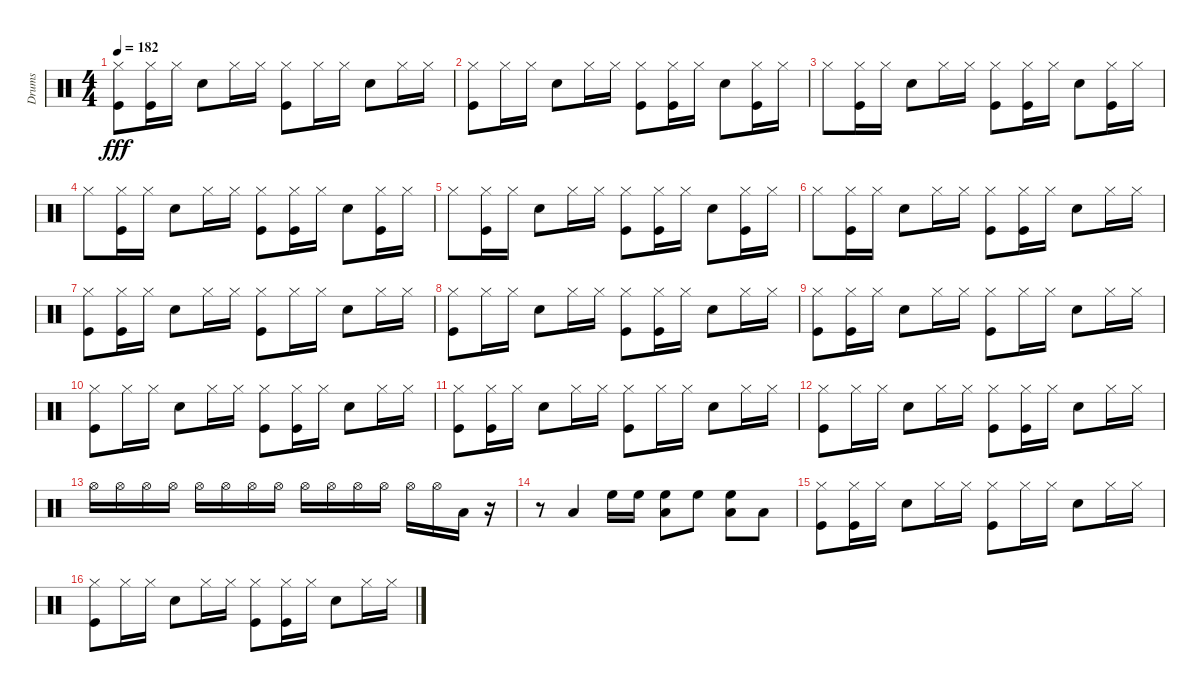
\track ("Drums" "Drums") {instrument percussion}
\staff {score}
\articulation defaults
\ts (4 4)
\tempo 182
\clef neutral
\ks c
("Hi-Hat (closed)" "Kick (hit)").8{dy fff} ("Hi-Hat (closed)" "Kick (hit)").16 "Hi-Hat (closed)".16 "Snare (hit) 2".8 "Hi-Hat (closed)".16 "Hi-Hat (closed)".16 ("Hi-Hat (closed)" "Kick (hit)").8 "Hi-Hat (closed)".16 "Hi-Hat (closed)".16 "Snare (hit) 2".8 "Hi-Hat (closed)".16 "Hi-Hat (closed)".16 |
("Hi-Hat (closed)" "Kick (hit)").8 "Hi-Hat (closed)".16 "Hi-Hat (closed)".16 "Snare (hit) 2".8 "Hi-Hat (closed)".16 "Hi-Hat (closed)".16 ("Hi-Hat (closed)" "Kick (hit)").8 ("Hi-Hat (closed)" "Kick (hit)").16 "Hi-Hat (closed)".16 "Snare (hit) 2".8 ("Hi-Hat (closed)" "Kick (hit)").16 "Hi-Hat (closed)".16 |
"Hi-Hat (closed)".8 ("Hi-Hat (closed)" "Kick (hit)").16 "Hi-Hat (closed)".16 "Snare (hit) 2".8 "Hi-Hat (closed)".16 "Hi-Hat (closed)".16 ("Hi-Hat (closed)" "Kick (hit)").8 ("Hi-Hat (closed)" "Kick (hit)").16 "Hi-Hat (closed)".16 "Snare (hit) 2".8 ("Hi-Hat (closed)" "Kick (hit)").16 "Hi-Hat (closed)".16 |
"Hi-Hat (closed)".8 ("Hi-Hat (closed)" "Kick (hit)").16 "Hi-Hat (closed)".16 "Snare (hit) 2".8 "Hi-Hat (closed)".16 "Hi-Hat (closed)".16 ("Hi-Hat (closed)" "Kick (hit)").8 ("Hi-Hat (closed)" "Kick (hit)").16 "Hi-Hat (closed)".16 "Snare (hit) 2".8 ("Hi-Hat (closed)" "Kick (hit)").16 "Hi-Hat (closed)".16 |
"Hi-Hat (closed)".8 ("Hi-Hat (closed)" "Kick (hit)").16 "Hi-Hat (closed)".16 "Snare (hit) 2".8 "Hi-Hat (closed)".16 "Hi-Hat (closed)".16 ("Hi-Hat (closed)" "Kick (hit)").8 ("Hi-Hat (closed)" "Kick (hit)").16 "Hi-Hat (closed)".16 "Snare (hit) 2".8 ("Hi-Hat (closed)" "Kick (hit)").16 "Hi-Hat (closed)".16 |
"Hi-Hat (closed)".8 ("Hi-Hat (closed)" "Kick (hit)").16 "Hi-Hat (closed)".16 "Snare (hit) 2".8 "Hi-Hat (closed)".16 "Hi-Hat (closed)".16 ("Hi-Hat (closed)" "Kick (hit)").8 ("Hi-Hat (closed)" "Kick (hit)").16 "Hi-Hat (closed)".16 "Snare (hit) 2".8 "Hi-Hat (closed)".16 "Hi-Hat (closed)".16 |
("Hi-Hat (closed)" "Kick (hit)").8 ("Hi-Hat (closed)" "Kick (hit)").16 "Hi-Hat (closed)".16 "Snare (hit) 2".8 "Hi-Hat (closed)".16 "Hi-Hat (closed)".16 ("Hi-Hat (closed)" "Kick (hit)").8 "Hi-Hat (closed)".16 "Hi-Hat (closed)".16 "Snare (hit) 2".8 "Hi-Hat (closed)".16 "Hi-Hat (closed)".16 |
("Hi-Hat (closed)" "Kick (hit)").8 "Hi-Hat (closed)".16 "Hi-Hat (closed)".16 "Snare (hit) 2".8 "Hi-Hat (closed)".16 "Hi-Hat (closed)".16 ("Hi-Hat (closed)" "Kick (hit)").8 ("Hi-Hat (closed)" "Kick (hit)").16 "Hi-Hat (closed)".16 "Snare (hit) 2".8 "Hi-Hat (closed)".16 "Hi-Hat (closed)".16 |
("Hi-Hat (closed)" "Kick (hit)").8 ("Hi-Hat (closed)" "Kick (hit)").16 "Hi-Hat (closed)".16 "Snare (hit) 2".8 "Hi-Hat (closed)".16 "Hi-Hat (closed)".16 ("Hi-Hat (closed)" "Kick (hit)").8 "Hi-Hat (closed)".16 "Hi-Hat (closed)".16 "Snare (hit) 2".8 "Hi-Hat (closed)".16 "Hi-Hat (closed)".16 |
("Hi-Hat (closed)" "Kick (hit)").8 "Hi-Hat (closed)".16 "Hi-Hat (closed)".16 "Snare (hit) 2".8 "Hi-Hat (closed)".16 "Hi-Hat (closed)".16 ("Hi-Hat (closed)" "Kick (hit)").8 ("Hi-Hat (closed)" "Kick (hit)").16 "Hi-Hat (closed)".16 "Snare (hit) 2".8 "Hi-Hat (closed)".16 "Hi-Hat (closed)".16 |
("Hi-Hat (closed)" "Kick (hit)").8 ("Hi-Hat (closed)" "Kick (hit)").16 "Hi-Hat (closed)".16 "Snare (hit) 2".8 "Hi-Hat (closed)".16 "Hi-Hat (closed)".16 ("Hi-Hat (closed)" "Kick (hit)").8 "Hi-Hat (closed)".16 "Hi-Hat (closed)".16 "Snare (hit) 2".8 "Hi-Hat (closed)".16 "Hi-Hat (closed)".16 |
("Hi-Hat (closed)" "Kick (hit)").8 "Hi-Hat (closed)".16 "Hi-Hat (closed)".16 "Snare (hit) 2".8 "Hi-Hat (closed)".16 "Hi-Hat (closed)".16 ("Hi-Hat (closed)" "Kick (hit)").8 ("Hi-Hat (closed)" "Kick (hit)").16 "Hi-Hat (closed)".16 "Snare (hit) 2".8 "Hi-Hat (closed)".16 "Hi-Hat (closed)".16 |
"Hi-Hat (open)".16 "Hi-Hat (open)".16 "Hi-Hat (open)".16 "Hi-Hat (open)".16 "Hi-Hat (open)".16 "Hi-Hat (open)".16 "Hi-Hat (open)".16 "Hi-Hat (open)".16 "Hi-Hat (open)".16 "Hi-Hat (open)".16 "Hi-Hat (open)".16 "Hi-Hat (open)".16 "Hi-Hat (open)".16 "Hi-Hat (open)".16 "Low Floor Tom (hit)".16 r.16 |
r.8 "Low Floor Tom (hit)".4 "High Floor Tom (hit)".16 "High Floor Tom (hit)".16 ("High Floor Tom (hit)" "Low Floor Tom (hit)").8 "High Floor Tom (hit)".8 ("High Floor Tom (hit)" "Low Floor Tom (hit)").8 "Low Floor Tom (hit)".8 |
("Hi-Hat (closed)" "Kick (hit)").8 ("Hi-Hat (closed)" "Kick (hit)").16 "Hi-Hat (closed)".16 "Snare (hit) 2".8 "Hi-Hat (closed)".16 "Hi-Hat (closed)".16 ("Hi-Hat (closed)" "Kick (hit)").8 "Hi-Hat (closed)".16 "Hi-Hat (closed)".16 "Snare (hit) 2".8 "Hi-Hat (closed)".16 "Hi-Hat (closed)".16 |
("Hi-Hat (closed)" "Kick (hit)").8 "Hi-Hat (closed)".16 "Hi-Hat (closed)".16 "Snare (hit) 2".8 "Hi-Hat (closed)".16 "Hi-Hat (closed)".16 ("Hi-Hat (closed)" "Kick (hit)").8 ("Hi-Hat (closed)" "Kick (hit)").16 "Hi-Hat (closed)".16 "Snare (hit) 2".8 "Hi-Hat (closed)".16 "Hi-Hat (closed)".16
